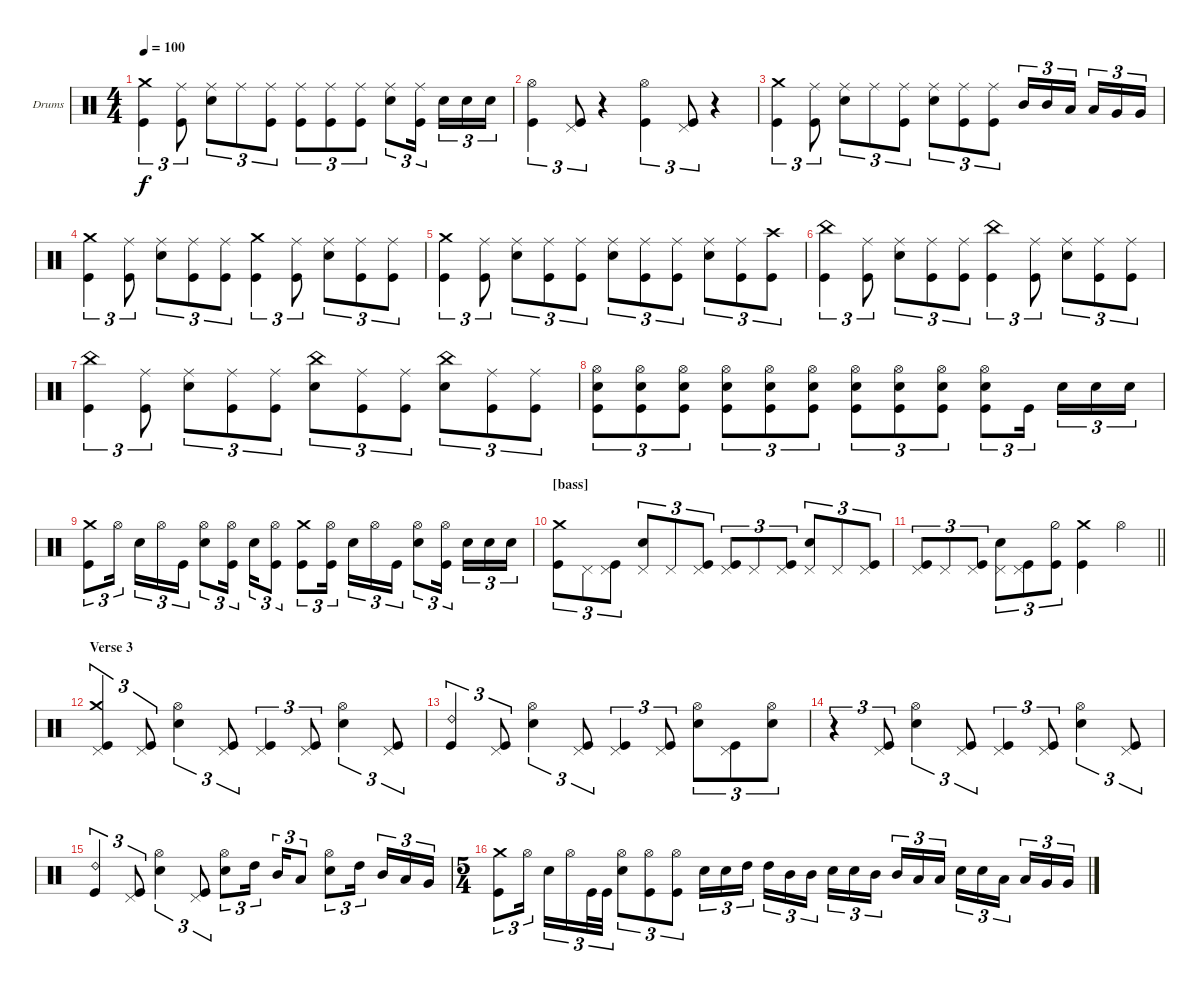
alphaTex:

\bracketExtendMode groupsimilarinstruments
\firstSystemTrackNameOrientation horizontal
\otherSystemsTrackNameOrientation horizontal
\track ("drums (Anton Zulganov)" "Drums") {instrument percussion}
\staff {score}
\articulation defaults
\ts (4 4)
\tempo 100
\clef neutral
\ks aminor
("Kick (hit)" "Crash medium (hit)").4{tu (3 2) dy f} ("Kick (hit)" "Ride (middle)").8{tu (3 2)} ("Snare (hit) 2" "Ride (middle)").8{tu (3 2)} "Ride (middle)".8{tu (3 2)} ("Kick (hit)" "Ride (middle)").8{tu (3 2)} ("Kick (hit)" "Ride (middle)").8{tu (3 2)} ("Kick (hit)" "Ride (middle)").8{tu (3 2)} ("Kick (hit)" "Ride (middle)").8{tu (3 2)} ("Snare (hit) 2" "Ride (middle)").8{tu (3 2)} ("Kick (hit)" "Ride (middle)").16{tu (3 2)} "Snare (hit) 2".16{tu (3 2)} "Snare (hit) 2".16{tu (3 2)} "Snare (hit) 2".16{tu (3 2)} |
("Kick (hit)" "Hi-Hat (open)").4{tu (3 2)} ("Kick (hit)" "Pedal Hi-Hat (hit)").8{tu (3 2)} r.4 ("Kick (hit)" "Hi-Hat (open)").4{tu (3 2)} ("Kick (hit)" "Pedal Hi-Hat (hit)").8{tu (3 2)} r.4 |
("Kick (hit)" "Crash medium (hit)").4{tu (3 2)} ("Kick (hit)" "Ride (middle)").8{tu (3 2)} ("Snare (hit) 2" "Ride (middle)").8{tu (3 2)} "Ride (middle)".8{tu (3 2)} ("Kick (hit)" "Ride (middle)").8{tu (3 2)} ("Snare (hit) 2" "Ride (middle)").8{tu (3 2)} ("Kick (hit)" "Ride (middle)").8{tu (3 2)} ("Kick (hit)" "Ride (middle)").8{tu (3 2)} "Mid Tom (hit)".16{tu (3 2)} "Mid Tom (hit)".16{tu (3 2)} "Low Tom (hit)".16{tu (3 2)} "Low Tom (hit)".16{tu (3 2)} "Very Low Tom (hit)".16{tu (3 2)} "Very Low Tom (hit)".16{tu (3 2)} |
("Kick (hit)" "Crash medium (hit)").4{tu (3 2)} ("Kick (hit)" "Ride (middle)").8{tu (3 2)} ("Snare (hit) 2" "Ride (middle)").8{tu (3 2)} ("Kick (hit)" "Ride (middle)").8{tu (3 2)} ("Kick (hit)" "Ride (middle)").8{tu (3 2)} ("Kick (hit)" "Crash medium (hit)").4{tu (3 2)} ("Kick (hit)" "Ride (middle)").8{tu (3 2)} ("Snare (hit) 2" "Ride (middle)").8{tu (3 2)} ("Kick (hit)" "Ride (middle)").8{tu (3 2)} ("Kick (hit)" "Ride (middle)").8{tu (3 2)} |
("Kick (hit)" "Crash medium (hit)").4{tu (3 2)} ("Kick (hit)" "Ride (middle)").8{tu (3 2)} ("Snare (hit) 2" "Ride (middle)").8{tu (3 2)} ("Kick (hit)" "Ride (middle)").8{tu (3 2)} ("Kick (hit)" "Ride (middle)").8{tu (3 2)} ("Snare (hit) 2" "Ride (middle)").8{tu (3 2)} ("Kick (hit)" "Ride (middle)").8{tu (3 2)} ("Kick (hit)" "Ride (middle)").8{tu (3 2)} ("Snare (hit) 2" "Ride (middle)").8{tu (3 2)} ("Kick (hit)" "Ride (middle)").8{tu (3 2)} ("Kick (hit)" "Crash high (hit)").8{tu (3 2)} |
("Kick (hit)" "China (hit)").4{tu (3 2)} ("Kick (hit)" "Ride (middle)").8{tu (3 2)} ("Snare (hit) 2" "Ride (middle)").8{tu (3 2)} ("Kick (hit)" "Ride (middle)").8{tu (3 2)} ("Kick (hit)" "Ride (middle)").8{tu (3 2)} ("Kick (hit)" "China (hit)").4{tu (3 2)} ("Kick (hit)" "Ride (middle)").8{tu (3 2)} ("Snare (hit) 2" "Ride (middle)").8{tu (3 2)} ("Kick (hit)" "Ride (middle)").8{tu (3 2)} ("Kick (hit)" "Ride (middle)").8{tu (3 2)} |
("Kick (hit)" "China (hit)").4{tu (3 2)} ("Kick (hit)" "Ride (middle)").8{tu (3 2)} ("Snare (hit) 2" "Ride (middle)").8{tu (3 2)} ("Kick (hit)" "Ride (middle)").8{tu (3 2)} ("Kick (hit)" "Ride (middle)").8{tu (3 2)} ("Snare (hit) 2" "China (hit)").8{tu (3 2)} ("Kick (hit)" "Ride (middle)").8{tu (3 2)} ("Kick (hit)" "Ride (middle)").8{tu (3 2)} ("Snare (hit) 2" "China (hit)").8{tu (3 2)} ("Kick (hit)" "Ride (middle)").8{tu (3 2)} ("Kick (hit)" "Ride (middle)").8{tu (3 2)} |
("Kick (hit)" "Snare (hit) 2" "Hi-Hat (open)").8{tu (3 2)} ("Kick (hit)" "Snare (hit) 2" "Hi-Hat (open)").8{tu (3 2)} ("Kick (hit)" "Snare (hit) 2" "Hi-Hat (open)").8{tu (3 2)} ("Kick (hit)" "Snare (hit) 2" "Hi-Hat (open)").8{tu (3 2)} ("Kick (hit)" "Snare (hit) 2" "Hi-Hat (open)").8{tu (3 2)} ("Kick (hit)" "Snare (hit) 2" "Hi-Hat (open)").8{tu (3 2)} ("Kick (hit)" "Snare (hit) 2" "Hi-Hat (open)").8{tu (3 2)} ("Kick (hit)" "Snare (hit) 2" "Hi-Hat (open)").8{tu (3 2)} ("Kick (hit)" "Snare (hit) 2" "Hi-Hat (open)").8{tu (3 2)} ("Kick (hit)" "Snare (hit) 2" "Hi-Hat (open)").8{tu (3 2)} "Kick (hit)".16{tu (3 2)} "Snare (hit) 2".16{tu (3 2)} "Snare (hit) 2".16{tu (3 2)} "Snare (hit) 2".16{tu (3 2)} |
("Kick (hit)" "Crash medium (hit)").8{tu (3 2)} "Hi-Hat (open)".16{tu (3 2)} "Snare (hit) 2".16{tu (3 2)} "Hi-Hat (open)".16{tu (3 2)} "Kick (hit)".16{tu (3 2)} ("Snare (hit) 2" "Hi-Hat (open)").8{tu (3 2)} ("Kick (hit)" "Hi-Hat (open)").16{tu (3 2)} "Snare (hit) 2".16{tu (3 2)} ("Kick (hit)" "Hi-Hat (open)").8{tu (3 2)} ("Kick (hit)" "Crash medium (hit)").8{tu (3 2)} ("Kick (hit)" "Hi-Hat (open)").16{tu (3 2)} "Snare (hit) 2".16{tu (3 2)} "Hi-Hat (open)".16{tu (3 2)} "Kick (hit)".16{tu (3 2)} ("Snare (hit) 2" "Hi-Hat (open)").8{tu (3 2)} ("Kick (hit)" "Hi-Hat (open)").16{tu (3 2)} "Snare (hit) 2".16{tu (3 2)} "Snare (hit) 2".16{tu (3 2)} "Snare (hit) 2".16{tu (3 2)} |
\section ("" "[bass]")
("Kick (hit)" "Crash medium (hit)").8{tu (3 2)} "Pedal Hi-Hat (hit)".8{tu (3 2)} ("Kick (hit)" "Pedal Hi-Hat (hit)").8{tu (3 2)} ("Snare (hit) 2" "Pedal Hi-Hat (hit)").8{tu (3 2)} "Pedal Hi-Hat (hit)".8{tu (3 2)} ("Kick (hit)" "Pedal Hi-Hat (hit)").8{tu (3 2)} ("Kick (hit)" "Pedal Hi-Hat (hit)").8{tu (3 2)} "Pedal Hi-Hat (hit)".8{tu (3 2)} ("Kick (hit)" "Pedal Hi-Hat (hit)").8{tu (3 2)} ("Snare (hit) 2" "Pedal Hi-Hat (hit)").8{tu (3 2)} "Pedal Hi-Hat (hit)".8{tu (3 2)} ("Kick (hit)" "Pedal Hi-Hat (hit)").8{tu (3 2)} |
\barLineRight lightlight
("Kick (hit)" "Pedal Hi-Hat (hit)").8{tu (3 2)} "Pedal Hi-Hat (hit)".8{tu (3 2)} ("Kick (hit)" "Pedal Hi-Hat (hit)").8{tu (3 2)} ("Snare (hit) 2" "Pedal Hi-Hat (hit)").8{tu (3 2)} ("Pedal Hi-Hat (hit)" "Kick (hit)").8{tu (3 2)} ("Kick (hit)" "Hi-Hat (half)").8{tu (3 2)} ("Kick (hit)" "Crash medium (hit)").4 "Hi-Hat (open)".4 |
\section ("" "Verse 3")
("Kick (hit)" "Pedal Hi-Hat (hit)" "Crash medium (hit)").4{tu (3 2)} ("Kick (hit)" "Pedal Hi-Hat (hit)").8{tu (3 2)} ("Snare (hit) 2" "Hi-Hat (open)").4{tu (3 2)} ("Kick (hit)" "Pedal Hi-Hat (hit)").8{tu (3 2)} ("Kick (hit)" "Pedal Hi-Hat (hit)").4{tu (3 2)} ("Kick (hit)" "Pedal Hi-Hat (hit)").8{tu (3 2)} ("Snare (hit) 2" "Hi-Hat (open)").4{tu (3 2)} ("Kick (hit)" "Pedal Hi-Hat (hit)").8{tu (3 2)} |
("Kick (hit)" "Ride (bell) 2").4{tu (3 2)} ("Kick (hit)" "Pedal Hi-Hat (hit)").8{tu (3 2)} ("Snare (hit) 2" "Hi-Hat (open)").4{tu (3 2)} ("Kick (hit)" "Pedal Hi-Hat (hit)").8{tu (3 2)} ("Kick (hit)" "Pedal Hi-Hat (hit)").4{tu (3 2)} ("Kick (hit)" "Pedal Hi-Hat (hit)").8{tu (3 2)} ("Snare (hit) 2" "Hi-Hat (open)").8{tu (3 2)} ("Kick (hit)" "Pedal Hi-Hat (hit)").8{tu (3 2)} ("Snare (hit) 2" "Hi-Hat (open)").8{tu (3 2)} |
r.4{tu (3 2)} ("Kick (hit)" "Pedal Hi-Hat (hit)").8{tu (3 2)} ("Snare (hit) 2" "Hi-Hat (open)").4{tu (3 2)} ("Kick (hit)" "Pedal Hi-Hat (hit)").8{tu (3 2)} ("Kick (hit)" "Pedal Hi-Hat (hit)").4{tu (3 2)} ("Kick (hit)" "Pedal Hi-Hat (hit)").8{tu (3 2)} ("Snare (hit) 2" "Hi-Hat (open)").4{tu (3 2)} ("Kick (hit)" "Pedal Hi-Hat (hit)").8{tu (3 2)} |
("Kick (hit)" "Ride (bell) 2").4{tu (3 2)} ("Kick (hit)" "Pedal Hi-Hat (hit)").8{tu (3 2)} ("Snare (hit) 2" "Hi-Hat (open)").4{tu (3 2)} ("Kick (hit)" "Pedal Hi-Hat (hit)").8{tu (3 2)} ("Snare (hit) 2" "Hi-Hat (open)").8{tu (3 2)} "High Tom (hit)".16{tu (3 2)} "Mid Tom (hit)".16{tu (3 2)} "Low Tom (hit)".8{tu (3 2)} ("Snare (hit) 2" "Hi-Hat (open)").8{tu (3 2)} "High Tom (hit)".16{tu (3 2)} "Mid Tom (hit)".16{tu (3 2)} "Low Tom (hit)".16{tu (3 2)} "Very Low Tom (hit)".16{tu (3 2)} |
\ts (5 4)
\beaming (8 2 2 2 4)
("Kick (hit)" "Crash medium (hit)").8{tu (3 2)} "Hi-Hat (open)".16{tu (3 2)} "Snare (hit) 2".16{tu (3 2)} "Hi-Hat (open)".16{tu (3 2)} "Kick (hit)".32{tu (3 2)} "Kick (hit)".32{tu (3 2)} ("Snare (hit) 2" "Hi-Hat (open)").8{tu (3 2)} ("Kick (hit)" "Hi-Hat (open)").8{tu (3 2)} ("Kick (hit)" "Hi-Hat (open)").8{tu (3 2)} "Snare (hit) 2".16{tu (3 2)} "Snare (hit) 2".16{tu (3 2)} "High Tom (hit)".16{tu (3 2)} "High Tom (hit)".16{tu (3 2)} "Mid Tom (hit)".16{tu (3 2)} "Mid Tom (hit)".16{tu (3 2)} "Snare (hit) 2".16{tu (3 2)} "Snare (hit) 2".16{tu (3 2)} "Mid Tom (hit)".16{tu (3 2)} "Mid Tom (hit)".16{tu (3 2)} "Low Tom (hit)".16{tu (3 2)} "Low Tom (hit)".16{tu (3 2)} "Snare (hit) 2".16{tu (3 2)} "Snare (hit) 2".16{tu (3 2)} "Low Tom (hit)".16{tu (3 2)} "Low Tom (hit)".16{tu (3 2)} "Very Low Tom (hit)".16{tu (3 2)} "Very Low Tom (hit)".16{tu (3 2)}
